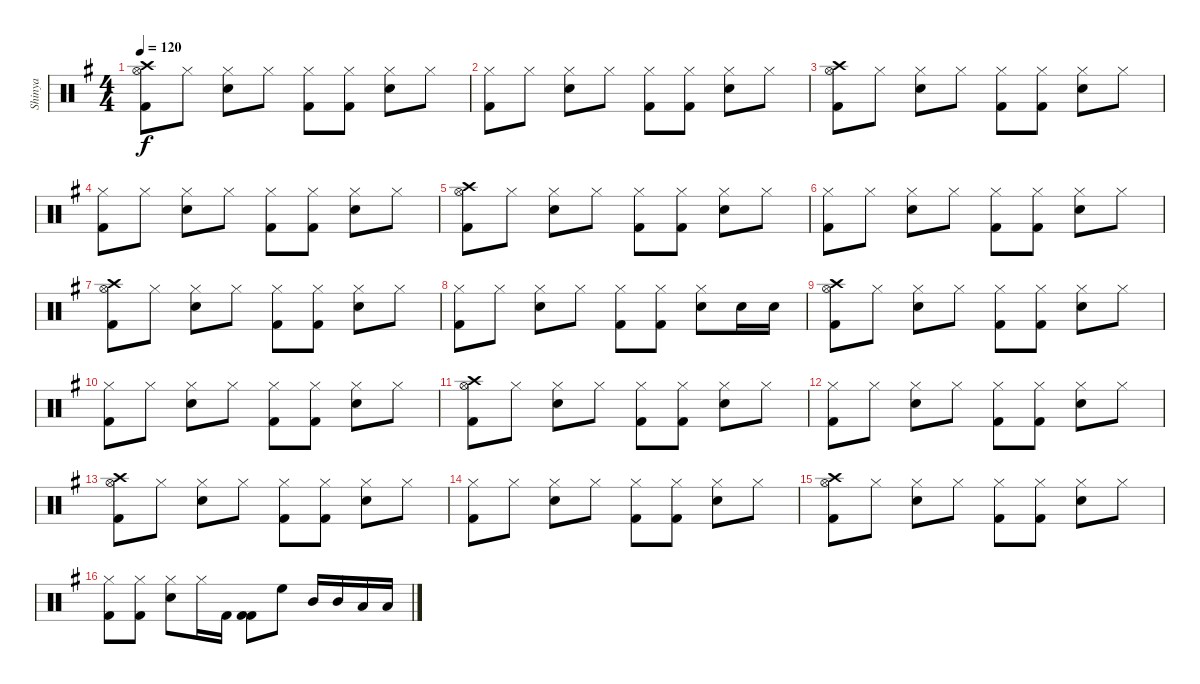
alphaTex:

\track ("Shinya" "Shinya") {instrument percussion}
\staff {score}
\articulation defaults
\ts (4 4)
\tempo 120
\clef neutral
\ks g
("Crash high (hit)" "Hi-Hat (open)" "Kick (hit) 2").8{dy f} "Hi-Hat (closed)".8 ("Hi-Hat (closed)" "Snare (hit) 2").8 "Hi-Hat (closed)".8 ("Hi-Hat (closed)" "Kick (hit) 2").8 ("Hi-Hat (closed)" "Kick (hit) 2").8 ("Hi-Hat (closed)" "Snare (hit) 2").8 "Hi-Hat (closed)".8 |
("Hi-Hat (closed)" "Kick (hit) 2").8 "Hi-Hat (closed)".8 ("Hi-Hat (closed)" "Snare (hit) 2").8 "Hi-Hat (closed)".8 ("Hi-Hat (closed)" "Kick (hit) 2").8 ("Hi-Hat (closed)" "Kick (hit) 2").8 ("Hi-Hat (closed)" "Snare (hit) 2").8 "Hi-Hat (closed)".8 |
("Crash high (hit)" "Hi-Hat (open)" "Kick (hit) 2").8 "Hi-Hat (closed)".8 ("Hi-Hat (closed)" "Snare (hit) 2").8 "Hi-Hat (closed)".8 ("Hi-Hat (closed)" "Kick (hit) 2").8 ("Hi-Hat (closed)" "Kick (hit) 2").8 ("Hi-Hat (closed)" "Snare (hit) 2").8 "Hi-Hat (closed)".8 |
("Hi-Hat (closed)" "Kick (hit) 2").8 "Hi-Hat (closed)".8 ("Hi-Hat (closed)" "Snare (hit) 2").8 "Hi-Hat (closed)".8 ("Hi-Hat (closed)" "Kick (hit) 2").8 ("Hi-Hat (closed)" "Kick (hit) 2").8 ("Hi-Hat (closed)" "Snare (hit) 2").8 "Hi-Hat (closed)".8 |
("Crash high (hit)" "Hi-Hat (open)" "Kick (hit) 2").8 "Hi-Hat (closed)".8 ("Hi-Hat (closed)" "Snare (hit) 2").8 "Hi-Hat (closed)".8 ("Hi-Hat (closed)" "Kick (hit) 2").8 ("Hi-Hat (closed)" "Kick (hit) 2").8 ("Hi-Hat (closed)" "Snare (hit) 2").8 "Hi-Hat (closed)".8 |
("Hi-Hat (closed)" "Kick (hit) 2").8 "Hi-Hat (closed)".8 ("Hi-Hat (closed)" "Snare (hit) 2").8 "Hi-Hat (closed)".8 ("Hi-Hat (closed)" "Kick (hit) 2").8 ("Hi-Hat (closed)" "Kick (hit) 2").8 ("Hi-Hat (closed)" "Snare (hit) 2").8 "Hi-Hat (closed)".8 |
("Crash high (hit)" "Hi-Hat (open)" "Kick (hit) 2").8 "Hi-Hat (closed)".8 ("Hi-Hat (closed)" "Snare (hit) 2").8 "Hi-Hat (closed)".8 ("Hi-Hat (closed)" "Kick (hit) 2").8 ("Hi-Hat (closed)" "Kick (hit) 2").8 ("Hi-Hat (closed)" "Snare (hit) 2").8 "Hi-Hat (closed)".8 |
("Hi-Hat (closed)" "Kick (hit) 2").8 "Hi-Hat (closed)".8 ("Hi-Hat (closed)" "Snare (hit) 2").8 "Hi-Hat (closed)".8 ("Hi-Hat (closed)" "Kick (hit) 2").8 ("Hi-Hat (closed)" "Kick (hit) 2").8 ("Hi-Hat (closed)" "Snare (hit) 2").8 "Snare (hit) 2".16 "Snare (hit) 2".16 |
("Crash high (hit)" "Hi-Hat (open)" "Kick (hit) 2").8 "Hi-Hat (closed)".8 ("Hi-Hat (closed)" "Snare (hit) 2").8 "Hi-Hat (closed)".8 ("Hi-Hat (closed)" "Kick (hit) 2").8 ("Hi-Hat (closed)" "Kick (hit) 2").8 ("Hi-Hat (closed)" "Snare (hit) 2").8 "Hi-Hat (closed)".8 |
("Hi-Hat (closed)" "Kick (hit) 2").8 "Hi-Hat (closed)".8 ("Hi-Hat (closed)" "Snare (hit) 2").8 "Hi-Hat (closed)".8 ("Hi-Hat (closed)" "Kick (hit) 2").8 ("Hi-Hat (closed)" "Kick (hit) 2").8 ("Hi-Hat (closed)" "Snare (hit) 2").8 "Hi-Hat (closed)".8 |
("Crash high (hit)" "Hi-Hat (open)" "Kick (hit) 2").8 "Hi-Hat (closed)".8 ("Hi-Hat (closed)" "Snare (hit) 2").8 "Hi-Hat (closed)".8 ("Hi-Hat (closed)" "Kick (hit) 2").8 ("Hi-Hat (closed)" "Kick (hit) 2").8 ("Hi-Hat (closed)" "Snare (hit) 2").8 "Hi-Hat (closed)".8 |
("Hi-Hat (closed)" "Kick (hit) 2").8 "Hi-Hat (closed)".8 ("Hi-Hat (closed)" "Snare (hit) 2").8 "Hi-Hat (closed)".8 ("Hi-Hat (closed)" "Kick (hit) 2").8 ("Hi-Hat (closed)" "Kick (hit) 2").8 ("Hi-Hat (closed)" "Snare (hit) 2").8 "Hi-Hat (closed)".8 |
("Crash high (hit)" "Hi-Hat (open)" "Kick (hit) 2").8 "Hi-Hat (closed)".8 ("Hi-Hat (closed)" "Snare (hit) 2").8 "Hi-Hat (closed)".8 ("Hi-Hat (closed)" "Kick (hit) 2").8 ("Hi-Hat (closed)" "Kick (hit) 2").8 ("Hi-Hat (closed)" "Snare (hit) 2").8 "Hi-Hat (closed)".8 |
("Hi-Hat (closed)" "Kick (hit) 2").8 "Hi-Hat (closed)".8 ("Hi-Hat (closed)" "Snare (hit) 2").8 "Hi-Hat (closed)".8 ("Hi-Hat (closed)" "Kick (hit) 2").8 ("Hi-Hat (closed)" "Kick (hit) 2").8 ("Hi-Hat (closed)" "Snare (hit) 2").8 "Hi-Hat (closed)".8 |
("Crash high (hit)" "Hi-Hat (open)" "Kick (hit) 2").8 "Hi-Hat (closed)".8 ("Hi-Hat (closed)" "Snare (hit) 2").8 "Hi-Hat (closed)".8 ("Hi-Hat (closed)" "Kick (hit) 2").8 ("Hi-Hat (closed)" "Kick (hit) 2").8 ("Hi-Hat (closed)" "Snare (hit) 2").8 "Hi-Hat (closed)".8 |
("Hi-Hat (closed)" "Kick (hit) 2").8 ("Hi-Hat (closed)" "Kick (hit) 2").8 ("Hi-Hat (closed)" "Snare (hit) 2").8 "Hi-Hat (closed)".16 "Kick (hit) 2".16 ("Kick (hit) 2" "Kick (hit) 2").8 "High Floor Tom (hit)".8 "Mid Tom (hit)".16 "Mid Tom (hit)".16 "Low Tom (hit)".16 "Low Tom (hit)".16
